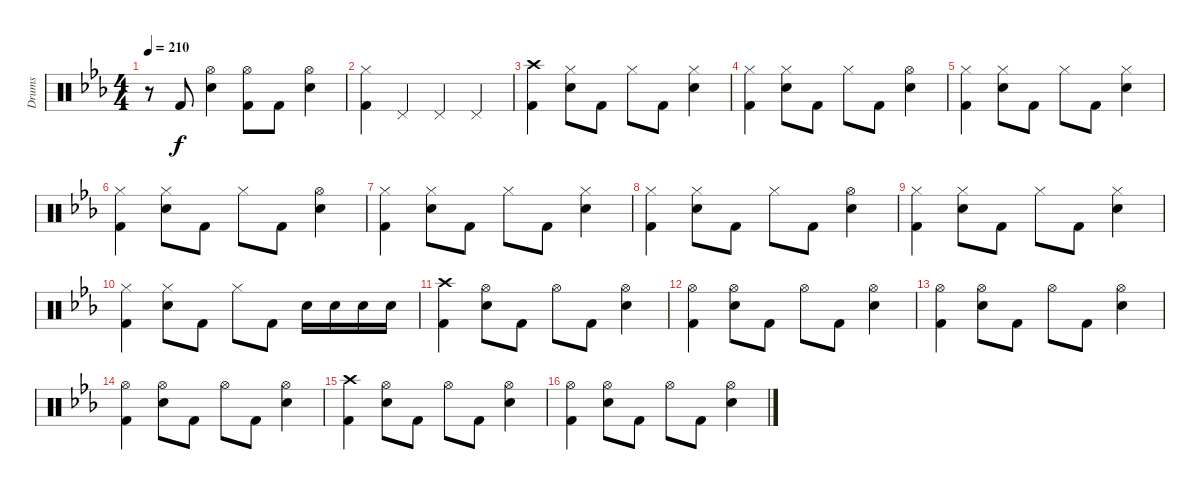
\track ("Drums" "Drums") {instrument percussion}
\staff {score}
\articulation defaults
\ts (4 4)
\tempo 210
\clef neutral
\ks cminor
r.8{dy f} "Kick (hit) 2".8 ("Hi-Hat (open)" "Snare (hit) 2").4 ("Hi-Hat (open)" "Kick (hit) 2").8 "Kick (hit) 2".8 ("Hi-Hat (open)" "Snare (hit) 2").4 |
("Hi-Hat (closed)" "Kick (hit) 2").4 "Pedal Hi-Hat (hit)".4 "Pedal Hi-Hat (hit)".4 "Pedal Hi-Hat (hit)".4 |
("Kick (hit) 2" "Crash high (hit)").4 ("Hi-Hat (closed)" "Snare (hit) 2").8 "Kick (hit) 2".8 "Hi-Hat (closed)".8 "Kick (hit) 2".8 ("Hi-Hat (closed)" "Snare (hit) 2").4 |
("Kick (hit) 2" "Hi-Hat (closed)").4 ("Hi-Hat (closed)" "Snare (hit) 2").8 "Kick (hit) 2".8 "Hi-Hat (closed)".8 "Kick (hit) 2".8 ("Hi-Hat (open)" "Snare (hit) 2").4 |
("Kick (hit) 2" "Hi-Hat (closed)").4 ("Hi-Hat (closed)" "Snare (hit) 2").8 "Kick (hit) 2".8 "Hi-Hat (closed)".8 "Kick (hit) 2".8 ("Hi-Hat (closed)" "Snare (hit) 2").4 |
("Kick (hit) 2" "Hi-Hat (closed)").4 ("Hi-Hat (closed)" "Snare (hit) 2").8 "Kick (hit) 2".8 "Hi-Hat (closed)".8 "Kick (hit) 2".8 ("Hi-Hat (open)" "Snare (hit) 2").4 |
("Kick (hit) 2" "Hi-Hat (closed)").4 ("Hi-Hat (closed)" "Snare (hit) 2").8 "Kick (hit) 2".8 "Hi-Hat (closed)".8 "Kick (hit) 2".8 ("Hi-Hat (closed)" "Snare (hit) 2").4 |
("Kick (hit) 2" "Hi-Hat (closed)").4 ("Hi-Hat (closed)" "Snare (hit) 2").8 "Kick (hit) 2".8 "Hi-Hat (closed)".8 "Kick (hit) 2".8 ("Hi-Hat (open)" "Snare (hit) 2").4 |
("Kick (hit) 2" "Hi-Hat (closed)").4 ("Hi-Hat (closed)" "Snare (hit) 2").8 "Kick (hit) 2".8 "Hi-Hat (closed)".8 "Kick (hit) 2".8 ("Hi-Hat (closed)" "Snare (hit) 2").4 |
("Kick (hit) 2" "Hi-Hat (closed)").4 ("Hi-Hat (closed)" "Snare (hit) 2").8 "Kick (hit) 2".8 "Hi-Hat (closed)".8 "Kick (hit) 2".8 "Snare (hit) 2".16 "Snare (hit) 2".16 "Snare (hit) 2".16 "Snare (hit) 2".16 |
("Kick (hit) 2" "Crash high (hit)").4 ("Hi-Hat (open)" "Snare (hit) 2").8 "Kick (hit) 2".8 "Hi-Hat (open)".8 "Kick (hit) 2".8 ("Hi-Hat (open)" "Snare (hit) 2").4 |
("Kick (hit) 2" "Hi-Hat (open)").4 ("Hi-Hat (open)" "Snare (hit) 2").8 "Kick (hit) 2".8 "Hi-Hat (open)".8 "Kick (hit) 2".8 ("Hi-Hat (open)" "Snare (hit) 2").4 |
("Kick (hit) 2" "Hi-Hat (open)").4 ("Hi-Hat (open)" "Snare (hit) 2").8 "Kick (hit) 2".8 "Hi-Hat (open)".8 "Kick (hit) 2".8 ("Hi-Hat (open)" "Snare (hit) 2").4 |
("Kick (hit) 2" "Hi-Hat (open)").4 ("Hi-Hat (open)" "Snare (hit) 2").8 "Kick (hit) 2".8 "Hi-Hat (open)".8 "Kick (hit) 2".8 ("Hi-Hat (open)" "Snare (hit) 2").4 |
("Kick (hit) 2" "Crash high (hit)").4 ("Hi-Hat (open)" "Snare (hit) 2").8 "Kick (hit) 2".8 "Hi-Hat (open)".8 "Kick (hit) 2".8 ("Hi-Hat (open)" "Snare (hit) 2").4 |
("Kick (hit) 2" "Hi-Hat (open)").4 ("Hi-Hat (open)" "Snare (hit) 2").8 "Kick (hit) 2".8 "Hi-Hat (open)".8 "Kick (hit) 2".8 ("Hi-Hat (open)" "Snare (hit) 2").4
